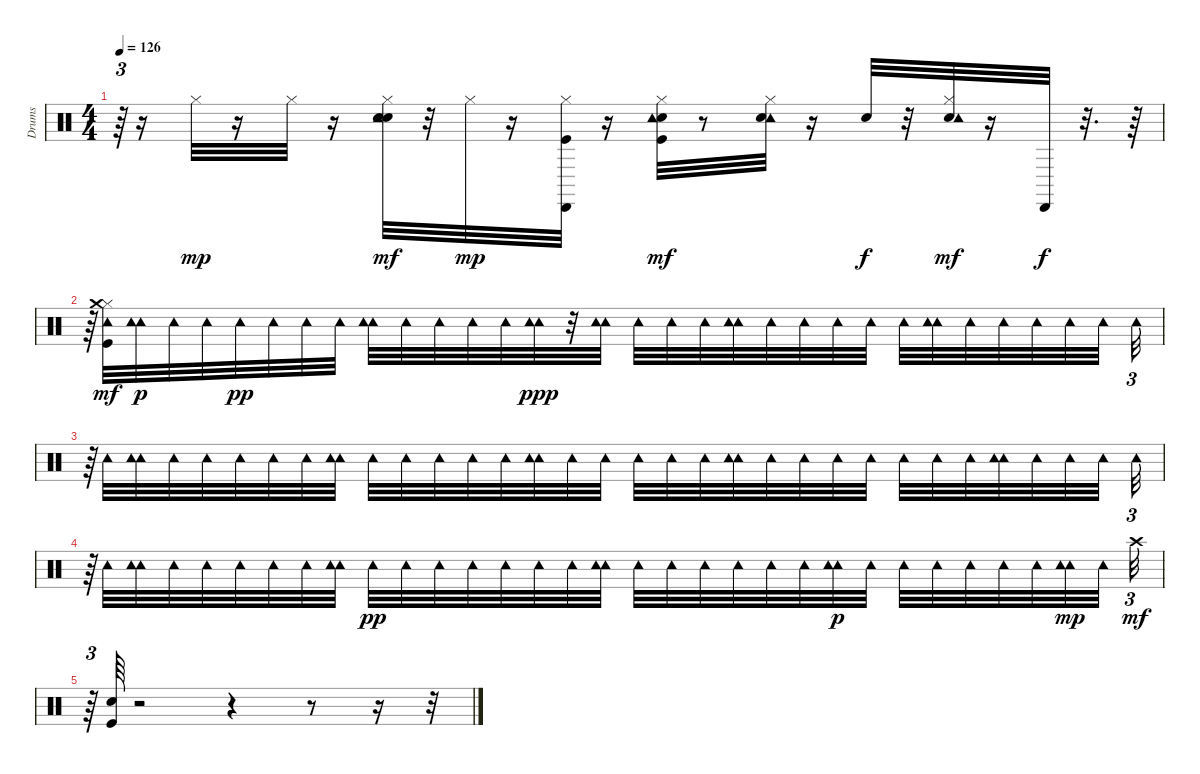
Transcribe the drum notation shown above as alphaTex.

\track ("Drums" "Drums") {instrument percussion}
\staff {score}
\articulation defaults
\ts (4 4)
\tempo 126
\clef neutral
\ks c
r.64{tu (3 2) dy mf} r.16 "Hi-Hat (closed)".32{dy mp} r.16 "Hi-Hat (closed)".32 r.16 ("Snare (hit) 2" "Tambourine (hit)" "Hi-Hat (closed)" "Hand Clap (hit)").32{dy mf} r.32 "Hi-Hat (closed)".32{dy mp} r.16 ("Cabasa (hit)" "Kick (hit)" "Hi-Hat (closed)").32 r.16 ("Kick (hit)" "Snare (hit) 2" "Hi-Hat (closed)" "Tambourine (hit)").32{dy mf} r.8 ("Hi-Hat (closed)" "Tambourine (hit)" "Snare (hit) 2").32 r.16 "Hand Clap (hit)".32{dy f} r.32 ("Hi-Hat (closed)" "Snare (hit) 2" "Tambourine (hit)").32{dy mf} r.16 "Cabasa (hit)".32{dy f} r.32{d} r.64 |
r.64{tu (3 2)} ("Hi-Hat (closed)" "Crash medium (hit)" "Tambourine (hit)" "Kick (hit)").32{dy mf} ("Tambourine (hit)" "Tambourine (hit)").32{dy p} "Tambourine (hit)".32 "Tambourine (hit)".32 "Tambourine (hit)".32{dy pp} "Tambourine (hit)".32 "Tambourine (hit)".32 "Tambourine (hit)".32 ("Tambourine (hit)" "Tambourine (hit)").32 "Tambourine (hit)".32 "Tambourine (hit)".32 "Tambourine (hit)".32 "Tambourine (hit)".32 ("Tambourine (hit)" "Tambourine (hit)").32{dy ppp} r.32 ("Tambourine (hit)" "Tambourine (hit)").32 "Tambourine (hit)".32 "Tambourine (hit)".32 "Tambourine (hit)".32 ("Tambourine (hit)" "Tambourine (hit)").32 "Tambourine (hit)".32 "Tambourine (hit)".32 "Tambourine (hit)".32 "Tambourine (hit)".32 "Tambourine (hit)".32 ("Tambourine (hit)" "Tambourine (hit)").32 "Tambourine (hit)".32 "Tambourine (hit)".32 "Tambourine (hit)".32 "Tambourine (hit)".32 "Tambourine (hit)".32{beam splitsecondary} "Tambourine (hit)".32{tu (3 2)} |
r.64{tu (3 2)} "Tambourine (hit)".32 ("Tambourine (hit)" "Tambourine (hit)").32 "Tambourine (hit)".32 "Tambourine (hit)".32 "Tambourine (hit)".32 "Tambourine (hit)".32 "Tambourine (hit)".32 ("Tambourine (hit)" "Tambourine (hit)").32 "Tambourine (hit)".32 "Tambourine (hit)".32 "Tambourine (hit)".32 "Tambourine (hit)".32 "Tambourine (hit)".32 ("Tambourine (hit)" "Tambourine (hit)").32 "Tambourine (hit)".32 "Tambourine (hit)".32 "Tambourine (hit)".32 "Tambourine (hit)".32 "Tambourine (hit)".32 ("Tambourine (hit)" "Tambourine (hit)").32 "Tambourine (hit)".32 "Tambourine (hit)".32 "Tambourine (hit)".32 "Tambourine (hit)".32 "Tambourine (hit)".32 "Tambourine (hit)".32 "Tambourine (hit)".32 ("Tambourine (hit)" "Tambourine (hit)").32 "Tambourine (hit)".32 "Tambourine (hit)".32 "Tambourine (hit)".32{beam splitsecondary} "Tambourine (hit)".32{tu (3 2)} |
r.64{tu (3 2)} "Tambourine (hit)".32 ("Tambourine (hit)" "Tambourine (hit)").32 "Tambourine (hit)".32 "Tambourine (hit)".32 "Tambourine (hit)".32 "Tambourine (hit)".32 "Tambourine (hit)".32 ("Tambourine (hit)" "Tambourine (hit)").32 "Tambourine (hit)".32{dy pp} "Tambourine (hit)".32 "Tambourine (hit)".32 "Tambourine (hit)".32 "Tambourine (hit)".32 "Tambourine (hit)".32 "Tambourine (hit)".32 ("Tambourine (hit)" "Tambourine (hit)").32 "Tambourine (hit)".32 "Tambourine (hit)".32 "Tambourine (hit)".32 "Tambourine (hit)".32 "Tambourine (hit)".32 "Tambourine (hit)".32 ("Tambourine (hit)" "Tambourine (hit)").32{dy p} "Tambourine (hit)".32 "Tambourine (hit)".32 "Tambourine (hit)".32 "Tambourine (hit)".32 "Tambourine (hit)".32 "Tambourine (hit)".32 ("Tambourine (hit)" "Tambourine (hit)").32{dy mp} "Tambourine (hit)".32{beam splitsecondary} "Crash high (hit)".32{tu (3 2) dy mf} |
r.64{tu (3 2)} ("Kick (hit)" "Snare (hit) 2").64 r.2 r.4 r.8 r.16 r.32
